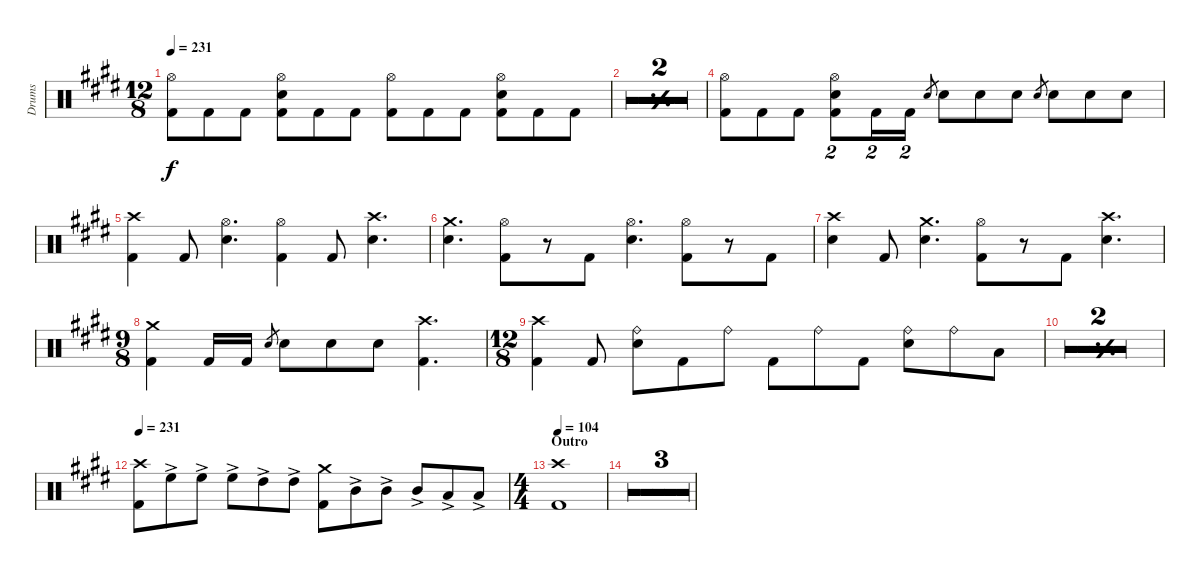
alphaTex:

\defaultSystemsLayout 4
\bracketExtendMode groupsimilarinstruments
\otherSystemsTrackNameOrientation horizontal
\track ("Drumkit" "Drums") {multiBarRest instrument percussion}
\staff {score}
\articulation defaults
\ts (12 8)
\tempo 231
\clef neutral
\ks c#minor
("Hi-Hat (open)"{acc forcenatural} "Kick (hit) 2"{acc forcenatural}).8{dy f} "Kick (hit) 2"{acc forcenatural}.8 "Kick (hit) 2"{acc forcenatural}.8 ("Snare (hit) 2"{acc forcenatural} "Kick (hit) 2"{acc forcenatural} "Hi-Hat (open)"{acc forcenatural}).8 "Kick (hit) 2"{acc forcenatural}.8 "Kick (hit) 2"{acc forcenatural}.8 ("Hi-Hat (open)"{acc forcenatural} "Kick (hit) 2"{acc forcenatural}).8 "Kick (hit) 2"{acc forcenatural}.8 "Kick (hit) 2"{acc forcenatural}.8 ("Snare (hit) 2"{acc forcenatural} "Kick (hit) 2"{acc forcenatural} "Hi-Hat (open)"{acc forcenatural}).8 "Kick (hit) 2"{acc forcenatural}.8 "Kick (hit) 2"{acc forcenatural}.8 |
\simile simple
|
|
\simile none
("Hi-Hat (open)"{acc forcenatural} "Kick (hit) 2"{acc forcenatural}).8 "Kick (hit) 2"{acc forcenatural}.8 "Kick (hit) 2"{acc forcenatural}.8 ("Hi-Hat (open)"{acc forcenatural} "Snare (hit) 2"{acc forcenatural} "Kick (hit) 2"{acc forcenatural}).8{tu (2 3)} "Kick (hit) 2"{acc forcenatural}.16{tu (2 3)} "Kick (hit) 2"{acc forcenatural}.16{tu (2 3)} "Snare (hit) 2"{acc forcenatural}.8{gr} "Snare (hit) 2"{acc forcenatural}.8 "Snare (hit) 2"{acc forcenatural}.8 "Snare (hit) 2"{acc forcenatural}.8 "Snare (hit) 2"{acc forcenatural}.8{gr} "Snare (hit) 2"{acc forcenatural}.8 "Snare (hit) 2"{acc forcenatural}.8 "Snare (hit) 2"{acc forcenatural}.8 |
("Kick (hit) 2"{acc forcenatural} "Crash high (hit)"{acc forcenatural}).4 "Kick (hit) 2"{acc forcenatural}.8 ("Snare (hit) 2"{acc forcenatural} "Hi-Hat (open)"{acc forcenatural}).4{d} ("Kick (hit) 2"{acc forcenatural} "Hi-Hat (open)"{acc forcenatural}).4 "Kick (hit) 2"{acc forcenatural}.8 ("Snare (hit) 2"{acc forcenatural} "Crash high (hit)"{acc forcenatural}).4{d} |
("Snare (hit) 2"{acc forcenatural} "Crash medium (hit)"{acc forcenatural}).4{d} ("Kick (hit) 2"{acc forcenatural} "Hi-Hat (open)"{acc forcenatural}).8 r.8 "Kick (hit) 2"{acc forcenatural}.8 ("Snare (hit) 2"{acc forcenatural} "Hi-Hat (open)"{acc forcenatural}).4{d} ("Kick (hit) 2"{acc forcenatural} "Hi-Hat (open)"{acc forcenatural}).8 r.8 "Kick (hit) 2"{acc forcenatural}.8 |
("Snare (hit) 2"{acc forcenatural} "Crash high (hit)"{acc forcenatural}).4 "Kick (hit) 2"{acc forcenatural}.8 ("Snare (hit) 2"{acc forcenatural} "Crash medium (hit)"{acc forcenatural}).4{d} ("Kick (hit) 2"{acc forcenatural} "Hi-Hat (open)"{acc forcenatural}).8 r.8 "Kick (hit) 2"{acc forcenatural}.8 ("Snare (hit) 2"{acc forcenatural} "Crash high (hit)"{acc forcenatural}).4{d} |
\ts (9 8)
("Kick (hit) 2"{acc forcenatural} "Crash medium (hit)"{acc forcenatural}).4 "Kick (hit) 2"{acc forcenatural}.16 "Kick (hit) 2"{acc forcenatural}.16 "Snare (hit) 2"{acc forcenatural}.8{gr} "Snare (hit) 2"{acc forcenatural}.8 "Snare (hit) 2"{acc forcenatural}.8 "Snare (hit) 2"{acc forcenatural}.8 ("Kick (hit) 2"{acc forcenatural} "Crash high (hit)"{acc forcenatural}).4{d} |
\ts (12 8)
("Crash high (hit)"{acc forcenatural} "Kick (hit) 2"{acc forcenatural}).4 "Kick (hit) 2"{acc forcenatural}.8 ("Ride (bell)"{acc forcenatural} "Snare (hit) 2"{acc forcenatural}).8 "Kick (hit) 2"{acc forcenatural}.8 "Ride (bell)"{acc forcenatural}.8 "Kick (hit) 2"{acc forcenatural}.8 "Ride (bell)"{acc forcenatural}.8 "Kick (hit) 2"{acc forcenatural}.8 ("Ride (bell)"{acc forcenatural} "Snare (hit) 2"{acc forcenatural}).8 "Ride (bell)"{acc forcenatural}.8 "Low Tom (hit)"{acc forcenatural}.8 |
\simile simple
|
|
\tempo 231
\simile none
("Crash high (hit)"{acc forcenatural} "Kick (hit) 2"{acc forcenatural}).8 "High Floor Tom (hit)"{ac acc forcenatural}.8 "High Floor Tom (hit)"{ac acc forcenatural}.8 "High Floor Tom (hit)"{ac acc forcenatural}.8 "High Tom (hit)"{ac acc forcenatural}.8 "High Tom (hit)"{ac acc forcenatural}.8 ("Crash medium (hit)"{acc forcenatural} "Kick (hit) 2"{acc forcenatural}).8 "Mid Tom (hit)"{ac acc forcenatural}.8 "Mid Tom (hit)"{ac acc forcenatural}.8 "Mid Tom (hit)"{ac acc forcenatural}.8 "Low Tom (hit)"{ac acc forcenatural}.8 "Low Tom (hit)"{ac acc forcenatural}.8 |
\ts (4 4)
\section ("" "Outro")
\tempo 104
("Crash high (hit)"{acc forcenatural} "Kick (hit) 2"{acc forcenatural}).1 |
r.1 |
r.1 |
r.1
